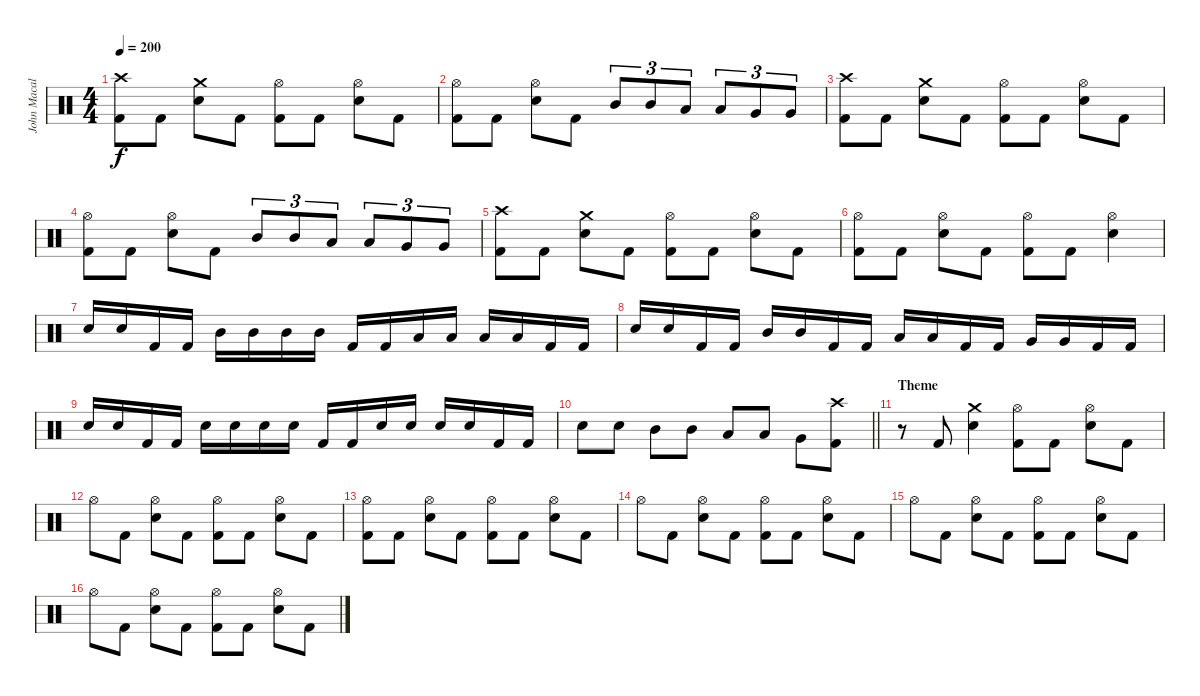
\track ("John Macaluso" "John Macal") {instrument percussion}
\staff {score}
\articulation defaults
\ts (4 4)
\tempo 200
\clef neutral
\ks c
("Crash high (hit)" "Kick (hit) 2").8{dy f} "Kick (hit) 2".8 ("Crash medium (hit)" "Snare (hit) 2").8 "Kick (hit) 2".8 ("Hi-Hat (open)" "Kick (hit) 2").8 "Kick (hit) 2".8 ("Hi-Hat (open)" "Snare (hit) 2").8 "Kick (hit) 2".8 |
("Hi-Hat (open)" "Kick (hit) 2").8 "Kick (hit) 2".8 ("Hi-Hat (open)" "Snare (hit) 2").8 "Kick (hit) 2".8 "Mid Tom (hit)".8{tu (3 2)} "Mid Tom (hit)".8{tu (3 2)} "Low Tom (hit)".8{tu (3 2)} "Low Tom (hit)".8{tu (3 2)} "Very Low Tom (hit)".8{tu (3 2)} "Very Low Tom (hit)".8{tu (3 2)} |
("Crash high (hit)" "Kick (hit) 2").8 "Kick (hit) 2".8 ("Crash medium (hit)" "Snare (hit) 2").8 "Kick (hit) 2".8 ("Hi-Hat (open)" "Kick (hit) 2").8 "Kick (hit) 2".8 ("Hi-Hat (open)" "Snare (hit) 2").8 "Kick (hit) 2".8 |
("Hi-Hat (open)" "Kick (hit) 2").8 "Kick (hit) 2".8 ("Hi-Hat (open)" "Snare (hit) 2").8 "Kick (hit) 2".8 "Mid Tom (hit)".8{tu (3 2)} "Mid Tom (hit)".8{tu (3 2)} "Low Tom (hit)".8{tu (3 2)} "Low Tom (hit)".8{tu (3 2)} "Very Low Tom (hit)".8{tu (3 2)} "Very Low Tom (hit)".8{tu (3 2)} |
("Crash high (hit)" "Kick (hit) 2").8 "Kick (hit) 2".8 ("Crash medium (hit)" "Snare (hit) 2").8 "Kick (hit) 2".8 ("Hi-Hat (open)" "Kick (hit) 2").8 "Kick (hit) 2".8 ("Hi-Hat (open)" "Snare (hit) 2").8 "Kick (hit) 2".8 |
("Hi-Hat (open)" "Kick (hit) 2").8 "Kick (hit) 2".8 ("Hi-Hat (open)" "Snare (hit) 2").8 "Kick (hit) 2".8 ("Hi-Hat (open)" "Kick (hit) 2").8 "Kick (hit) 2".8 ("Hi-Hat (open)" "Snare (hit) 2").4 |
"Snare (hit) 2".16 "Snare (hit) 2".16 "Kick (hit) 2".16 "Kick (hit) 2".16 "Mid Tom (hit)".16 "Mid Tom (hit)".16 "Mid Tom (hit)".16 "Mid Tom (hit)".16 "Kick (hit) 2".16 "Kick (hit) 2".16 "Low Tom (hit)".16 "Low Tom (hit)".16 "Low Tom (hit)".16 "Low Tom (hit)".16 "Kick (hit) 2".16 "Kick (hit) 2".16 |
"Snare (hit) 2".16 "Snare (hit) 2".16 "Kick (hit) 2".16 "Kick (hit) 2".16 "Mid Tom (hit)".16 "Mid Tom (hit)".16 "Kick (hit) 2".16 "Kick (hit) 2".16 "Low Tom (hit)".16 "Low Tom (hit)".16 "Kick (hit) 2".16 "Kick (hit) 2".16 "Very Low Tom (hit)".16 "Very Low Tom (hit)".16 "Kick (hit) 2".16 "Kick (hit) 2".16 |
"Snare (hit) 2".16 "Snare (hit) 2".16 "Kick (hit) 2".16 "Kick (hit) 2".16 "Snare (hit) 2".16 "Snare (hit) 2".16 "Snare (hit) 2".16 "Snare (hit) 2".16 "Kick (hit) 2".16 "Kick (hit) 2".16 "Snare (hit) 2".16 "Snare (hit) 2".16 "Snare (hit) 2".16 "Snare (hit) 2".16 "Kick (hit) 2".16 "Kick (hit) 2".16 |
\barLineRight lightlight "Snare (hit) 2".8 "Snare (hit) 2".8 "Mid Tom (hit)".8 "Mid Tom (hit)".8 "Low Tom (hit)".8 "Low Tom (hit)".8 "Very Low Tom (hit)".8
("Crash high (hit)" "Kick (hit) 2").8 |
\section ("" "Theme")
r.8 "Kick (hit) 2".8 ("Crash medium (hit)" "Snare (hit) 2").4 ("Hi-Hat (open)" "Kick (hit) 2").8 "Kick (hit) 2".8 ("Hi-Hat (open)" "Snare (hit) 2").8 "Kick (hit) 2".8 |
"Hi-Hat (open)".8 "Kick (hit) 2".8 ("Hi-Hat (open)" "Snare (hit) 2").8 "Kick (hit) 2".8 ("Hi-Hat (open)" "Kick (hit) 2").8 "Kick (hit) 2".8 ("Hi-Hat (open)" "Snare (hit) 2").8 "Kick (hit) 2".8 |
("Hi-Hat (open)" "Kick (hit) 2").8 "Kick (hit) 2".8 ("Hi-Hat (open)" "Snare (hit) 2").8 "Kick (hit) 2".8 ("Hi-Hat (open)" "Kick (hit) 2").8 "Kick (hit) 2".8 ("Hi-Hat (open)" "Snare (hit) 2").8 "Kick (hit) 2".8 |
"Hi-Hat (open)".8 "Kick (hit) 2".8 ("Hi-Hat (open)" "Snare (hit) 2").8 "Kick (hit) 2".8 ("Hi-Hat (open)" "Kick (hit) 2").8 "Kick (hit) 2".8 ("Hi-Hat (open)" "Snare (hit) 2").8 "Kick (hit) 2".8 |
"Hi-Hat (open)".8 "Kick (hit) 2".8 ("Hi-Hat (open)" "Snare (hit) 2").8 "Kick (hit) 2".8 ("Hi-Hat (open)" "Kick (hit) 2").8 "Kick (hit) 2".8 ("Hi-Hat (open)" "Snare (hit) 2").8 "Kick (hit) 2".8 |
"Hi-Hat (open)".8 "Kick (hit) 2".8 ("Hi-Hat (open)" "Snare (hit) 2").8 "Kick (hit) 2".8 ("Hi-Hat (open)" "Kick (hit) 2").8 "Kick (hit) 2".8 ("Hi-Hat (open)" "Snare (hit) 2").8 "Kick (hit) 2".8
